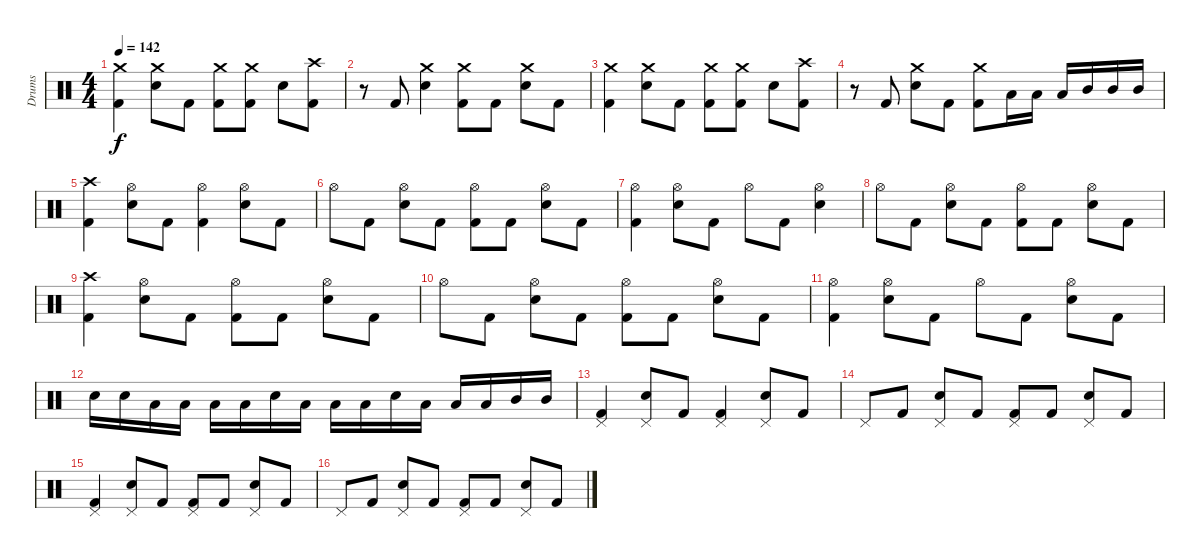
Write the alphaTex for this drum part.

\track ("Drums" "Drums") {instrument percussion}
\staff {score}
\articulation defaults
\ts (4 4)
\tempo 142
\clef neutral
\ks c
("Crash medium (hit)" "Kick (hit) 2").4{dy f} ("Crash medium (hit)" "Electric Snare (hit)").8 "Kick (hit) 2".8 ("Crash medium (hit)" "Kick (hit) 2").8 ("Crash medium (hit)" "Kick (hit) 2").8 "Electric Snare (hit)".8 ("Crash high (hit)" "Kick (hit) 2").8 |
r.8 "Kick (hit) 2".8 ("Crash medium (hit)" "Electric Snare (hit)").4 ("Crash medium (hit)" "Kick (hit) 2").8 "Kick (hit) 2".8 ("Crash medium (hit)" "Electric Snare (hit)").8 "Kick (hit) 2".8 |
("Crash medium (hit)" "Kick (hit) 2").4 ("Crash medium (hit)" "Electric Snare (hit)").8 "Kick (hit) 2".8 ("Crash medium (hit)" "Kick (hit) 2").8 ("Crash medium (hit)" "Kick (hit) 2").8 "Electric Snare (hit)".8 ("Crash high (hit)" "Kick (hit) 2").8 |
r.8 "Kick (hit) 2".8 ("Crash medium (hit)" "Electric Snare (hit)").8 "Kick (hit) 2".8 ("Crash medium (hit)" "Kick (hit) 2").8 "Low Tom (hit)".16 "Low Tom (hit)".16 "Low Tom (hit)".16 "Mid Tom (hit)".16 "Mid Tom (hit)".16 "Mid Tom (hit)".16 |
("Crash high (hit)" "Kick (hit) 2").4 ("Hi-Hat (open)" "Electric Snare (hit)").8 "Kick (hit) 2".8 ("Hi-Hat (open)" "Kick (hit) 2").4 ("Hi-Hat (open)" "Electric Snare (hit)").8 "Kick (hit) 2".8 |
"Hi-Hat (open)".8 "Kick (hit) 2".8 ("Hi-Hat (open)" "Electric Snare (hit)").8 "Kick (hit) 2".8 ("Hi-Hat (open)" "Kick (hit) 2").8 "Kick (hit) 2".8 ("Hi-Hat (open)" "Electric Snare (hit)").8 "Kick (hit) 2".8 |
("Hi-Hat (open)" "Kick (hit) 2").4 ("Hi-Hat (open)" "Electric Snare (hit)").8 "Kick (hit) 2".8 "Hi-Hat (open)".8 "Kick (hit) 2".8 ("Hi-Hat (open)" "Electric Snare (hit)").4 |
"Hi-Hat (open)".8 "Kick (hit) 2".8 ("Hi-Hat (open)" "Electric Snare (hit)").8 "Kick (hit) 2".8 ("Hi-Hat (open)" "Kick (hit) 2").8 "Kick (hit) 2".8 ("Hi-Hat (open)" "Electric Snare (hit)").8 "Kick (hit) 2".8 |
("Crash high (hit)" "Kick (hit) 2").4 ("Hi-Hat (open)" "Electric Snare (hit)").8 "Kick (hit) 2".8 ("Hi-Hat (open)" "Kick (hit) 2").8 "Kick (hit) 2".8 ("Hi-Hat (open)" "Electric Snare (hit)").8 "Kick (hit) 2".8 |
"Hi-Hat (open)".8 "Kick (hit) 2".8 ("Hi-Hat (open)" "Electric Snare (hit)").8 "Kick (hit) 2".8 ("Hi-Hat (open)" "Kick (hit) 2").8 "Kick (hit) 2".8 ("Hi-Hat (open)" "Electric Snare (hit)").8 "Kick (hit) 2".8 |
("Hi-Hat (open)" "Kick (hit) 2").4 ("Hi-Hat (open)" "Electric Snare (hit)").8 "Kick (hit) 2".8 "Hi-Hat (open)".8 "Kick (hit) 2".8 ("Hi-Hat (open)" "Electric Snare (hit)").8 "Kick (hit) 2".8 |
"Electric Snare (hit)".16 "Electric Snare (hit)".16 "Low Tom (hit)".16 "Low Tom (hit)".16 "Low Tom (hit)".16 "Low Tom (hit)".16 "Electric Snare (hit)".16 "Low Tom (hit)".16 "Low Tom (hit)".16 "Low Tom (hit)".16 "Electric Snare (hit)".16 "Low Tom (hit)".16 "Low Tom (hit)".16 "Low Tom (hit)".16 "Mid Tom (hit)".16 "Mid Tom (hit)".16 |
("Pedal Hi-Hat (hit)" "Kick (hit) 2").4 ("Pedal Hi-Hat (hit)" "Electric Snare (hit)").8 "Kick (hit) 2".8 ("Pedal Hi-Hat (hit)" "Kick (hit) 2").4 ("Pedal Hi-Hat (hit)" "Electric Snare (hit)").8 "Kick (hit) 2".8 |
"Pedal Hi-Hat (hit)".8 "Kick (hit) 2".8 ("Pedal Hi-Hat (hit)" "Electric Snare (hit)").8 "Kick (hit) 2".8 ("Pedal Hi-Hat (hit)" "Kick (hit) 2").8 "Kick (hit) 2".8 ("Pedal Hi-Hat (hit)" "Electric Snare (hit)").8 "Kick (hit) 2".8 |
("Pedal Hi-Hat (hit)" "Kick (hit) 2").4 ("Pedal Hi-Hat (hit)" "Electric Snare (hit)").8 "Kick (hit) 2".8 ("Pedal Hi-Hat (hit)" "Kick (hit) 2").8 "Kick (hit) 2".8 ("Pedal Hi-Hat (hit)" "Electric Snare (hit)").8 "Kick (hit) 2".8 |
"Pedal Hi-Hat (hit)".8 "Kick (hit) 2".8 ("Pedal Hi-Hat (hit)" "Electric Snare (hit)").8 "Kick (hit) 2".8 ("Pedal Hi-Hat (hit)" "Kick (hit) 2").8 "Kick (hit) 2".8 ("Pedal Hi-Hat (hit)" "Electric Snare (hit)").8 "Kick (hit) 2".8
